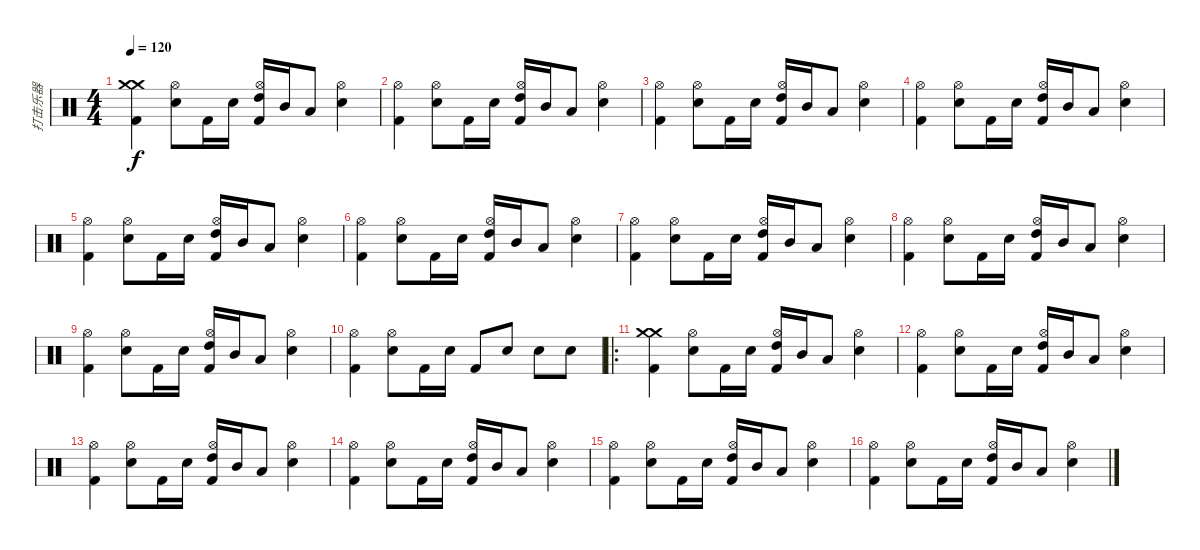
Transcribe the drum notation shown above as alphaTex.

\track ("打击乐器" "打击乐器") {instrument percussion}
\staff {score}
\articulation defaults
\ts (4 4)
\tempo 120
\clef neutral
\ks c
("Crash medium (hit)" "Crash medium (hit)" "Kick (hit) 2").4{dy f} ("Hi-Hat (open)" "Snare (hit) 2").8 "Kick (hit) 2".16 "Snare (hit) 2".16 ("Hi-Hat (open)" "High Tom (hit)" "Kick (hit) 2").16 "Mid Tom (hit)".16 "Low Tom (hit)".8 ("Hi-Hat (open)" "Snare (hit) 2").4 |
("Hi-Hat (open)" "Kick (hit) 2").4 ("Hi-Hat (open)" "Snare (hit) 2").8 "Kick (hit) 2".16 "Snare (hit) 2".16 ("Hi-Hat (open)" "High Tom (hit)" "Kick (hit) 2").16 "Mid Tom (hit)".16 "Low Tom (hit)".8 ("Hi-Hat (open)" "Snare (hit) 2").4 |
("Hi-Hat (open)" "Kick (hit) 2").4 ("Hi-Hat (open)" "Snare (hit) 2").8 "Kick (hit) 2".16 "Snare (hit) 2".16 ("Hi-Hat (open)" "High Tom (hit)" "Kick (hit) 2").16 "Mid Tom (hit)".16 "Low Tom (hit)".8 ("Hi-Hat (open)" "Snare (hit) 2").4 |
("Hi-Hat (open)" "Kick (hit) 2").4 ("Hi-Hat (open)" "Snare (hit) 2").8 "Kick (hit) 2".16 "Snare (hit) 2".16 ("Hi-Hat (open)" "High Tom (hit)" "Kick (hit) 2").16 "Mid Tom (hit)".16 "Low Tom (hit)".8 ("Hi-Hat (open)" "Snare (hit) 2").4 |
("Hi-Hat (open)" "Kick (hit) 2").4 ("Hi-Hat (open)" "Snare (hit) 2").8 "Kick (hit) 2".16 "Snare (hit) 2".16 ("Hi-Hat (open)" "High Tom (hit)" "Kick (hit) 2").16 "Mid Tom (hit)".16 "Low Tom (hit)".8 ("Hi-Hat (open)" "Snare (hit) 2").4 |
("Hi-Hat (open)" "Kick (hit) 2").4 ("Hi-Hat (open)" "Snare (hit) 2").8 "Kick (hit) 2".16 "Snare (hit) 2".16 ("Hi-Hat (open)" "High Tom (hit)" "Kick (hit) 2").16 "Mid Tom (hit)".16 "Low Tom (hit)".8 ("Hi-Hat (open)" "Snare (hit) 2").4 |
("Hi-Hat (open)" "Kick (hit) 2").4 ("Hi-Hat (open)" "Snare (hit) 2").8 "Kick (hit) 2".16 "Snare (hit) 2".16 ("Hi-Hat (open)" "High Tom (hit)" "Kick (hit) 2").16 "Mid Tom (hit)".16 "Low Tom (hit)".8 ("Hi-Hat (open)" "Snare (hit) 2").4 |
("Hi-Hat (open)" "Kick (hit) 2").4 ("Hi-Hat (open)" "Snare (hit) 2").8 "Kick (hit) 2".16 "Snare (hit) 2".16 ("Hi-Hat (open)" "High Tom (hit)" "Kick (hit) 2").16 "Mid Tom (hit)".16 "Low Tom (hit)".8 ("Hi-Hat (open)" "Snare (hit) 2").4 |
("Hi-Hat (open)" "Kick (hit) 2").4 ("Hi-Hat (open)" "Snare (hit) 2").8 "Kick (hit) 2".16 "Snare (hit) 2".16 ("Hi-Hat (open)" "High Tom (hit)" "Kick (hit) 2").16 "Mid Tom (hit)".16 "Low Tom (hit)".8 ("Hi-Hat (open)" "Snare (hit) 2").4 |
("Hi-Hat (open)" "Kick (hit) 2").4 ("Hi-Hat (open)" "Snare (hit) 2").8 "Kick (hit) 2".16 "Snare (hit) 2".16 "Kick (hit) 2".8 "Snare (hit) 2".8 "Snare (hit) 2".8 "Snare (hit) 2".8 |
\ro
("Crash medium (hit)" "Crash medium (hit)" "Kick (hit) 2").4 ("Hi-Hat (open)" "Snare (hit) 2").8 "Kick (hit) 2".16 "Snare (hit) 2".16 ("Hi-Hat (open)" "High Tom (hit)" "Kick (hit) 2").16 "Mid Tom (hit)".16 "Low Tom (hit)".8 ("Hi-Hat (open)" "Snare (hit) 2").4 |
("Hi-Hat (open)" "Kick (hit) 2").4 ("Hi-Hat (open)" "Snare (hit) 2").8 "Kick (hit) 2".16 "Snare (hit) 2".16 ("Hi-Hat (open)" "High Tom (hit)" "Kick (hit) 2").16 "Mid Tom (hit)".16 "Low Tom (hit)".8 ("Hi-Hat (open)" "Snare (hit) 2").4 |
("Hi-Hat (open)" "Kick (hit) 2").4 ("Hi-Hat (open)" "Snare (hit) 2").8 "Kick (hit) 2".16 "Snare (hit) 2".16 ("Hi-Hat (open)" "High Tom (hit)" "Kick (hit) 2").16 "Mid Tom (hit)".16 "Low Tom (hit)".8 ("Hi-Hat (open)" "Snare (hit) 2").4 |
("Hi-Hat (open)" "Kick (hit) 2").4 ("Hi-Hat (open)" "Snare (hit) 2").8 "Kick (hit) 2".16 "Snare (hit) 2".16 ("Hi-Hat (open)" "High Tom (hit)" "Kick (hit) 2").16 "Mid Tom (hit)".16 "Low Tom (hit)".8 ("Hi-Hat (open)" "Snare (hit) 2").4 |
("Hi-Hat (open)" "Kick (hit) 2").4 ("Hi-Hat (open)" "Snare (hit) 2").8 "Kick (hit) 2".16 "Snare (hit) 2".16 ("Hi-Hat (open)" "High Tom (hit)" "Kick (hit) 2").16 "Mid Tom (hit)".16 "Low Tom (hit)".8 ("Hi-Hat (open)" "Snare (hit) 2").4 |
("Hi-Hat (open)" "Kick (hit) 2").4 ("Hi-Hat (open)" "Snare (hit) 2").8 "Kick (hit) 2".16 "Snare (hit) 2".16 ("Hi-Hat (open)" "High Tom (hit)" "Kick (hit) 2").16 "Mid Tom (hit)".16 "Low Tom (hit)".8 ("Hi-Hat (open)" "Snare (hit) 2").4
